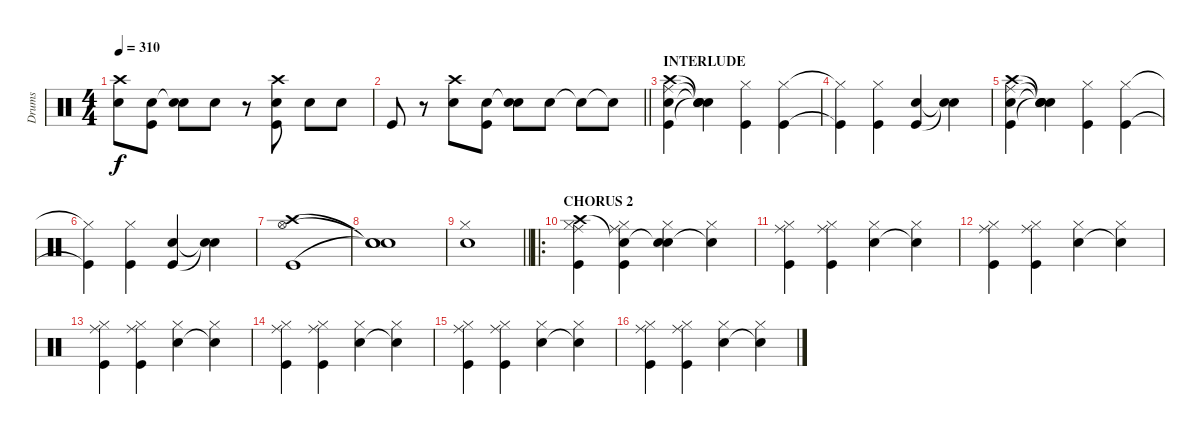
\track ("Drums" "Drums") {instrument percussion}
\staff {score}
\articulation defaults
\ts (4 4)
\tempo 310
\clef neutral
\ks c
("Crash high (hit)" "Snare (hit) 2").8{dy f} ("Snare (hit) 2" "Kick (hit)").8 ("Snare (hit)"{t} "Snare (hit) 2").8 "Snare (hit) 2".8 r.8 ("Crash high (hit)" "Snare (hit) 2" "Kick (hit)").8 "Snare (hit) 2".8 "Snare (hit) 2".8 |
\barLineRight lightlight "Kick (hit)".8
r.8 ("Crash high (hit)" "Snare (hit) 2").8 ("Snare (hit) 2" "Kick (hit)").8 ("Snare (hit)"{t} "Snare (hit) 2").8 "Snare (hit) 2".8 "Snare (hit)"{t}.8 "Snare (hit)"{t}.8 |
\section ("" "INTERLUDE")
("Crash high (hit)" "Ride (middle)" "Snare (hit) 2" "Kick (hit)").4 ("Snare (hit)"{t} "Snare (hit)"{t} "Snare (hit)"{t} "Snare (hit)"{t}).4 ("Hi-Hat (closed)" "Kick (hit)").4 ("Hi-Hat (closed)" "Kick (hit)").4 |
("Hi-Hat (closed)"{t} "Kick (hit)"{t}).4 ("Hi-Hat (closed)" "Kick (hit)").4 ("Snare (hit) 2" "Kick (hit)").4 ("Snare (hit)"{t} "Snare (hit)"{t}).4 |
("Crash high (hit)" "Ride (middle)" "Snare (hit) 2" "Kick (hit)").4 ("Snare (hit)"{t} "Snare (hit)"{t} "Snare (hit)"{t} "Snare (hit)"{t}).4 ("Hi-Hat (closed)" "Kick (hit)").4 ("Hi-Hat (closed)" "Kick (hit)").4 |
("Hi-Hat (closed)"{t} "Kick (hit)"{t}).4 ("Hi-Hat (closed)" "Kick (hit)").4 ("Snare (hit) 2" "Kick (hit)").4 ("Snare (hit)"{t} "Snare (hit)"{t}).4 |
("Crash high (hit)" "Hi-Hat (open)" "Kick (hit)").1 |
("Snare (hit)"{t} "Snare (hit)"{t} "Snare (hit)"{t}).1 |
\barLineRight lightlight
("Hi-Hat (closed)" "Snare (hit) 2").1 |
\ro
\section ("" "CHORUS 2")
("Crash high (hit)" "Ride (middle)" "Hi-Hat (closed)" "Kick (hit)").4 ("Snare (hit)"{t} "Ride (middle)" "Hi-Hat (closed)" "Kick (hit)").4 ("Snare (hit)"{t} "Snare (hit) 2" "Hi-Hat (closed)").4 ("Snare (hit)"{t} "Hi-Hat (closed)").4 |
("Ride (middle)" "Hi-Hat (closed)" "Kick (hit)").4 ("Ride (middle)" "Hi-Hat (closed)" "Kick (hit)").4 ("Snare (hit) 2" "Hi-Hat (closed)").4 ("Snare (hit)"{t} "Hi-Hat (closed)").4 |
("Ride (middle)" "Hi-Hat (closed)" "Kick (hit)").4 ("Ride (middle)" "Hi-Hat (closed)" "Kick (hit)").4 ("Snare (hit) 2" "Hi-Hat (closed)").4 ("Snare (hit)"{t} "Hi-Hat (closed)").4 |
("Ride (middle)" "Hi-Hat (closed)" "Kick (hit)").4 ("Ride (middle)" "Hi-Hat (closed)" "Kick (hit)").4 ("Snare (hit) 2" "Hi-Hat (closed)").4 ("Snare (hit)"{t} "Hi-Hat (closed)").4 |
("Ride (middle)" "Hi-Hat (closed)" "Kick (hit)").4 ("Ride (middle)" "Hi-Hat (closed)" "Kick (hit)").4 ("Snare (hit) 2" "Hi-Hat (closed)").4 ("Snare (hit)"{t} "Hi-Hat (closed)").4 |
("Ride (middle)" "Hi-Hat (closed)" "Kick (hit)").4 ("Ride (middle)" "Hi-Hat (closed)" "Kick (hit)").4 ("Snare (hit) 2" "Hi-Hat (closed)").4 ("Snare (hit)"{t} "Hi-Hat (closed)").4 |
("Ride (middle)" "Hi-Hat (closed)" "Kick (hit)").4 ("Ride (middle)" "Hi-Hat (closed)" "Kick (hit)").4 ("Snare (hit) 2" "Hi-Hat (closed)").4 ("Snare (hit)"{t} "Hi-Hat (closed)").4
